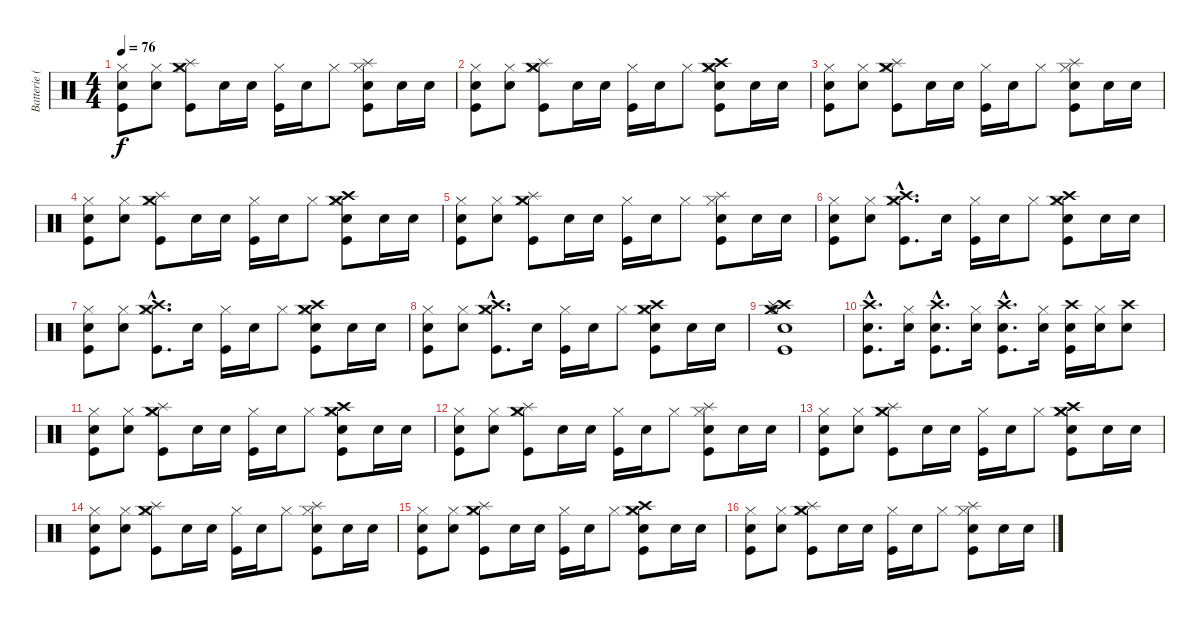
\track ("Batterie (Caroline Corr)" "Batterie (") {instrument percussion}
\staff {score}
\articulation defaults
\ts (4 4)
\tempo 76
\clef neutral
\ks c
("Hi-Hat (closed)" "Snare (hit) 2" "Kick (hit)").8{dy f} ("Hi-Hat (closed)" "Snare (hit) 2").8 ("Hi-Hat (closed)" "Splash (hit)" "Crash medium (hit)" "Kick (hit)").8 "Snare (hit) 2".16 "Snare (hit) 2".16 ("Hi-Hat (closed)" "Kick (hit)").16 "Snare (hit) 2".16 "Hi-Hat (closed)".8 ("Hi-Hat (closed)" "Snare (hit) 2" "Splash (hit)" "Kick (hit)").8 "Snare (hit) 2".16 "Snare (hit) 2".16 |
("Hi-Hat (closed)" "Snare (hit) 2" "Kick (hit)").8 ("Hi-Hat (closed)" "Snare (hit) 2").8 ("Hi-Hat (closed)" "Splash (hit)" "Crash medium (hit)" "Kick (hit)").8 "Snare (hit) 2".16 "Snare (hit) 2".16 ("Hi-Hat (closed)" "Kick (hit)").16 "Snare (hit) 2".16 "Hi-Hat (closed)".8 ("Hi-Hat (closed)" "Snare (hit) 2" "Crash high (hit)" "Crash medium (hit)" "Kick (hit)").8 "Snare (hit) 2".16 "Snare (hit) 2".16 |
("Hi-Hat (closed)" "Snare (hit) 2" "Kick (hit)").8 ("Hi-Hat (closed)" "Snare (hit) 2").8 ("Hi-Hat (closed)" "Splash (hit)" "Crash medium (hit)" "Kick (hit)").8 "Snare (hit) 2".16 "Snare (hit) 2".16 ("Hi-Hat (closed)" "Kick (hit)").16 "Snare (hit) 2".16 "Hi-Hat (closed)".8 ("Hi-Hat (closed)" "Snare (hit) 2" "Splash (hit)" "Kick (hit)").8 "Snare (hit) 2".16 "Snare (hit) 2".16 |
("Hi-Hat (closed)" "Snare (hit) 2" "Kick (hit)").8 ("Hi-Hat (closed)" "Snare (hit) 2").8 ("Hi-Hat (closed)" "Splash (hit)" "Crash medium (hit)" "Kick (hit)").8 "Snare (hit) 2".16 "Snare (hit) 2".16 ("Hi-Hat (closed)" "Kick (hit)").16 "Snare (hit) 2".16 "Hi-Hat (closed)".8 ("Hi-Hat (closed)" "Snare (hit) 2" "Crash high (hit)" "Crash medium (hit)" "Kick (hit)").8 "Snare (hit) 2".16 "Snare (hit) 2".16 |
("Hi-Hat (closed)" "Snare (hit) 2" "Kick (hit)").8 ("Hi-Hat (closed)" "Snare (hit) 2").8 ("Hi-Hat (closed)" "Splash (hit)" "Crash medium (hit)" "Kick (hit)").8 "Snare (hit) 2".16 "Snare (hit) 2".16 ("Hi-Hat (closed)" "Kick (hit)").16 "Snare (hit) 2".16 "Hi-Hat (closed)".8 ("Hi-Hat (closed)" "Snare (hit) 2" "Splash (hit)" "Kick (hit)").8 "Snare (hit) 2".16 "Snare (hit) 2".16 |
("Hi-Hat (closed)" "Snare (hit) 2" "Kick (hit)").8 ("Hi-Hat (closed)" "Snare (hit) 2").8 ("Hi-Hat (closed)"{hac} "Crash high (hit)"{hac} "Crash medium (hit)"{hac} "Kick (hit)"{hac}).8{d} "Snare (hit) 2".16 ("Hi-Hat (closed)" "Kick (hit)").16 "Snare (hit) 2".16 "Hi-Hat (closed)".8 ("Hi-Hat (closed)" "Snare (hit) 2" "Crash high (hit)" "Crash medium (hit)" "Kick (hit)").8 "Snare (hit) 2".16 "Snare (hit) 2".16 |
("Hi-Hat (closed)" "Snare (hit) 2" "Kick (hit)").8 ("Hi-Hat (closed)" "Snare (hit) 2").8 ("Hi-Hat (closed)"{hac} "Crash high (hit)"{hac} "Crash medium (hit)"{hac} "Kick (hit)"{hac}).8{d} "Snare (hit) 2".16 ("Hi-Hat (closed)" "Kick (hit)").16 "Snare (hit) 2".16 "Hi-Hat (closed)".8 ("Hi-Hat (closed)" "Snare (hit) 2" "Crash high (hit)" "Crash medium (hit)" "Kick (hit)").8 "Snare (hit) 2".16 "Snare (hit) 2".16 |
("Hi-Hat (closed)" "Snare (hit) 2" "Kick (hit)").8 ("Hi-Hat (closed)" "Snare (hit) 2").8 ("Hi-Hat (closed)"{hac} "Crash high (hit)"{hac} "Crash medium (hit)"{hac} "Kick (hit)"{hac}).8{d} "Snare (hit) 2".16 ("Hi-Hat (closed)" "Kick (hit)").16 "Snare (hit) 2".16 "Hi-Hat (closed)".8 ("Hi-Hat (closed)" "Snare (hit) 2" "Crash high (hit)" "Crash medium (hit)" "Kick (hit)").8 "Snare (hit) 2".16 "Snare (hit) 2".16 |
("Hi-Hat (open)" "Crash medium (hit)" "Crash high (hit)" "Snare (hit) 2" "Splash (hit)" "Kick (hit)").1 |
("Snare (hit) 2"{hac} "Crash high (hit)"{hac} "Kick (hit)"{hac}).8{d} ("Snare (hit) 2" "Hi-Hat (closed)").16 ("Snare (hit) 2"{hac} "Crash high (hit)"{hac} "Kick (hit)"{hac}).8{d} ("Snare (hit) 2" "Hi-Hat (closed)").16 ("Snare (hit) 2"{hac} "Crash high (hit)"{hac} "Kick (hit)"{hac}).8{d} ("Snare (hit) 2" "Hi-Hat (closed)").16 ("Snare (hit) 2" "Crash high (hit)" "Kick (hit)").16 ("Snare (hit) 2" "Hi-Hat (closed)").16 ("Snare (hit) 2" "Crash high (hit)").8 |
("Hi-Hat (closed)" "Snare (hit) 2" "Kick (hit)").8 ("Hi-Hat (closed)" "Snare (hit) 2").8 ("Hi-Hat (closed)" "Splash (hit)" "Crash medium (hit)" "Kick (hit)").8 "Snare (hit) 2".16 "Snare (hit) 2".16 ("Hi-Hat (closed)" "Kick (hit)").16 "Snare (hit) 2".16 "Hi-Hat (closed)".8 ("Hi-Hat (closed)" "Snare (hit) 2" "Crash high (hit)" "Crash medium (hit)" "Kick (hit)").8 "Snare (hit) 2".16 "Snare (hit) 2".16 |
("Hi-Hat (closed)" "Snare (hit) 2" "Kick (hit)").8 ("Hi-Hat (closed)" "Snare (hit) 2").8 ("Hi-Hat (closed)" "Splash (hit)" "Crash medium (hit)" "Kick (hit)").8 "Snare (hit) 2".16 "Snare (hit) 2".16 ("Hi-Hat (closed)" "Kick (hit)").16 "Snare (hit) 2".16 "Hi-Hat (closed)".8 ("Hi-Hat (closed)" "Snare (hit) 2" "Splash (hit)" "Kick (hit)").8 "Snare (hit) 2".16 "Snare (hit) 2".16 |
("Hi-Hat (closed)" "Snare (hit) 2" "Kick (hit)").8 ("Hi-Hat (closed)" "Snare (hit) 2").8 ("Hi-Hat (closed)" "Splash (hit)" "Crash medium (hit)" "Kick (hit)").8 "Snare (hit) 2".16 "Snare (hit) 2".16 ("Hi-Hat (closed)" "Kick (hit)").16 "Snare (hit) 2".16 "Hi-Hat (closed)".8 ("Hi-Hat (closed)" "Snare (hit) 2" "Crash high (hit)" "Crash medium (hit)" "Kick (hit)").8 "Snare (hit) 2".16 "Snare (hit) 2".16 |
("Hi-Hat (closed)" "Snare (hit) 2" "Kick (hit)").8 ("Hi-Hat (closed)" "Snare (hit) 2").8 ("Hi-Hat (closed)" "Splash (hit)" "Crash medium (hit)" "Kick (hit)").8 "Snare (hit) 2".16 "Snare (hit) 2".16 ("Hi-Hat (closed)" "Kick (hit)").16 "Snare (hit) 2".16 "Hi-Hat (closed)".8 ("Hi-Hat (closed)" "Snare (hit) 2" "Splash (hit)" "Kick (hit)").8 "Snare (hit) 2".16 "Snare (hit) 2".16 |
("Hi-Hat (closed)" "Snare (hit) 2" "Kick (hit)").8 ("Hi-Hat (closed)" "Snare (hit) 2").8 ("Hi-Hat (closed)" "Splash (hit)" "Crash medium (hit)" "Kick (hit)").8 "Snare (hit) 2".16 "Snare (hit) 2".16 ("Hi-Hat (closed)" "Kick (hit)").16 "Snare (hit) 2".16 "Hi-Hat (closed)".8 ("Hi-Hat (closed)" "Snare (hit) 2" "Crash high (hit)" "Crash medium (hit)" "Kick (hit)").8 "Snare (hit) 2".16 "Snare (hit) 2".16 |
("Hi-Hat (closed)" "Snare (hit) 2" "Kick (hit)").8 ("Hi-Hat (closed)" "Snare (hit) 2").8 ("Hi-Hat (closed)" "Splash (hit)" "Crash medium (hit)" "Kick (hit)").8 "Snare (hit) 2".16 "Snare (hit) 2".16 ("Hi-Hat (closed)" "Kick (hit)").16 "Snare (hit) 2".16 "Hi-Hat (closed)".8 ("Hi-Hat (closed)" "Snare (hit) 2" "Splash (hit)" "Kick (hit)").8 "Snare (hit) 2".16 "Snare (hit) 2".16
